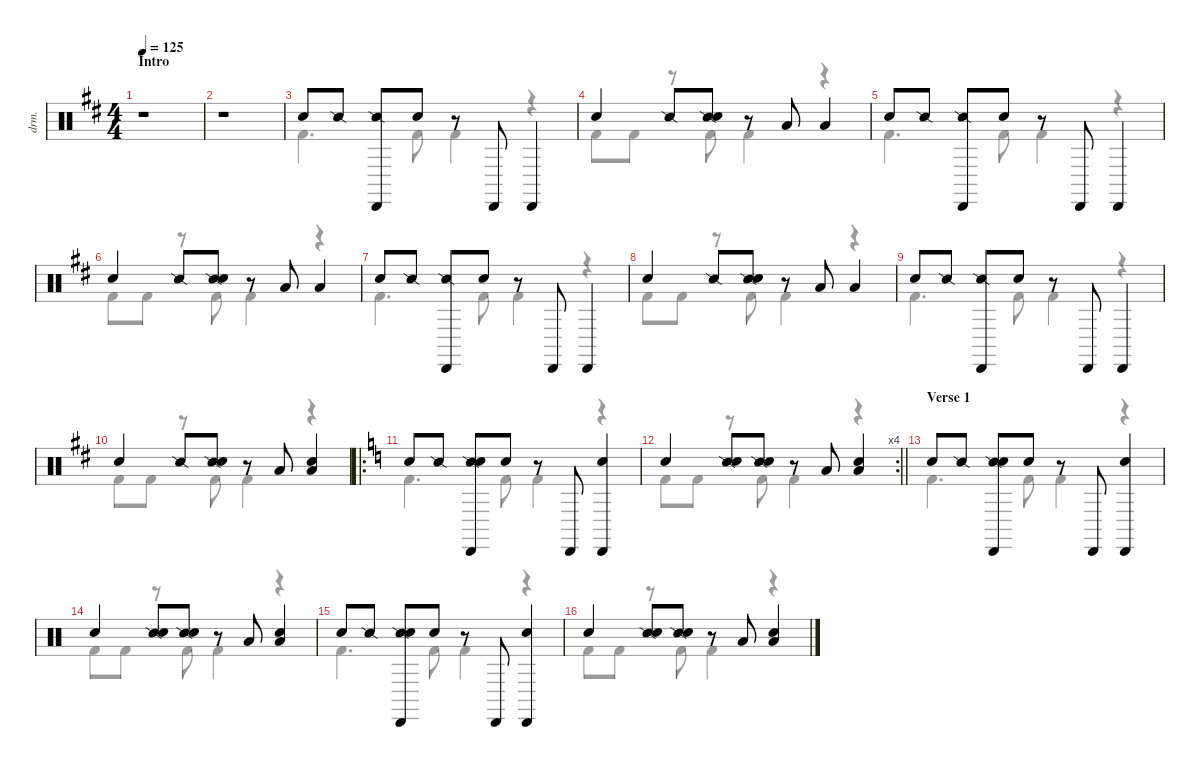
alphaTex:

\defaultSystemsLayout 4
\hideDynamics
\bracketExtendMode nobrackets
\otherSystemsTrackNameOrientation horizontal
\track ("Drums" "drm.") {instrument percussion}
\staff {score}
\articulation defaults
\voice
\ts (4 4)
\beaming (8 2 2 2 2)
\section ("" "Intro")
\tempo 125
\clef neutral
\ks d
r.1{dy p beam Down} |
r.1{beam Down} |
"Hand Clap (hit)"{acc forcenatural}.8{beam Up} "Snare (side stick) 2"{acc forcenatural}.8{dy f beam Up} ("Snare (side stick) 2"{acc forcenatural} "Cabasa (hit)"{acc forcenatural}).8{beam Up} "Hand Clap (hit)"{acc forcenatural}.8{dy p beam Up} r.8{beam Up} "Cabasa (hit)"{acc forcenatural}.8{dy f beam Up} "Cabasa (hit)"{acc forcenatural}.4{beam Up} |
"Hand Clap (hit)"{acc forcenatural}.4{dy p beam Up} "Snare (side stick) 2"{acc forcenatural}.8{dy mf beam Up} ("Snare (side stick) 2"{acc forcenatural} "Hand Clap (hit)"{acc forcenatural}).8{beam Up} r.8{beam Up} "Low Tom (hit)"{acc forcenatural}.8{dy f beam Up} "Low Tom (hit)"{acc forcenatural}.4{beam Up} |
"Hand Clap (hit)"{acc forcenatural}.8{dy p beam Up} "Snare (side stick) 2"{acc forcenatural}.8{dy f beam Up} ("Snare (side stick) 2"{acc forcenatural} "Cabasa (hit)"{acc forcenatural}).8{beam Up} "Hand Clap (hit)"{acc forcenatural}.8{dy p beam Up} r.8{beam Up} "Cabasa (hit)"{acc forcenatural}.8{dy f beam Up} "Cabasa (hit)"{acc forcenatural}.4{beam Up} |
"Hand Clap (hit)"{acc forcenatural}.4{dy p beam Up} "Snare (side stick) 2"{acc forcenatural}.8{dy mf beam Up} ("Snare (side stick) 2"{acc forcenatural} "Hand Clap (hit)"{acc forcenatural}).8{beam Up} r.8{beam Up} "Low Tom (hit)"{acc forcenatural}.8{dy f beam Up} "Low Tom (hit)"{acc forcenatural}.4{beam Up} |
"Hand Clap (hit)"{acc forcenatural}.8{dy p beam Up} "Snare (side stick) 2"{acc forcenatural}.8{dy f beam Up} ("Snare (side stick) 2"{acc forcenatural} "Cabasa (hit)"{acc forcenatural}).8{beam Up} "Hand Clap (hit)"{acc forcenatural}.8{dy p beam Up} r.8{beam Up} "Cabasa (hit)"{acc forcenatural}.8{dy f beam Up} "Cabasa (hit)"{acc forcenatural}.4{beam Up} |
"Hand Clap (hit)"{acc forcenatural}.4{dy p beam Up} "Snare (side stick) 2"{acc forcenatural}.8{dy mf beam Up} ("Snare (side stick) 2"{acc forcenatural} "Hand Clap (hit)"{acc forcenatural}).8{beam Up} r.8{beam Up} "Low Tom (hit)"{acc forcenatural}.8{dy f beam Up} "Low Tom (hit)"{acc forcenatural}.4{beam Up} |
"Hand Clap (hit)"{acc forcenatural}.8{dy p beam Up} "Snare (side stick) 2"{acc forcenatural}.8{dy f beam Up} ("Snare (side stick) 2"{acc forcenatural} "Cabasa (hit)"{acc forcenatural}).8{beam Up} "Hand Clap (hit)"{acc forcenatural}.8{dy p beam Up} r.8{beam Up} "Cabasa (hit)"{acc forcenatural}.8{dy f beam Up} "Cabasa (hit)"{acc forcenatural}.4{beam Up} |
"Hand Clap (hit)"{acc forcenatural}.4{dy p beam Up} "Snare (side stick) 2"{acc forcenatural}.8{dy mf beam Up} ("Snare (side stick) 2"{acc forcenatural} "Hand Clap (hit)"{acc forcenatural}).8{beam Up} r.8{beam Up} "Low Tom (hit)"{acc forcenatural}.8{dy f beam Up} ("Low Tom (hit)"{acc forcenatural} "Snare (hit) 2"{acc forcenatural}).4{beam Up} |
\ro
\ks c "Hand Clap (hit)".8{dy p beam Up} "Snare (side stick) 2".8{dy f beam Up}
("Snare (side stick) 2" "Cabasa (hit)" "Snare (hit) 2").8{beam Up} "Hand Clap (hit)".8{dy p beam Up} r.8{beam Up} "Cabasa (hit)".8{dy f beam Up} ("Cabasa (hit)" "Snare (hit) 2").4{beam Up} |
\rc 4
\barLineRight lightlight "Hand Clap (hit)".4{dy p beam Up}
("Snare (side stick) 2" "Snare (hit) 2").8{dy mf beam Up} ("Snare (side stick) 2" "Hand Clap (hit)").8{beam Up} r.8{beam Up} "Low Tom (hit)".8{dy f beam Up} ("Low Tom (hit)" "Snare (hit) 2").4{beam Up} |
\section ("" "Verse 1")
"Hand Clap (hit)".8{dy p beam Up} "Snare (side stick) 2".8{dy f beam Up} ("Snare (side stick) 2" "Cabasa (hit)" "Snare (hit) 2").8{beam Up} "Hand Clap (hit)".8{dy p beam Up} r.8{beam Up} "Cabasa (hit)".8{dy f beam Up} ("Cabasa (hit)" "Snare (hit) 2").4{beam Up} |
"Hand Clap (hit)".4{dy p beam Up} ("Snare (side stick) 2" "Snare (hit) 2").8{dy mf beam Up} ("Snare (side stick) 2" "Hand Clap (hit)").8{beam Up} r.8{beam Up} "Low Tom (hit)".8{dy f beam Up} ("Low Tom (hit)" "Snare (hit) 2").4{beam Up} |
"Hand Clap (hit)".8{dy p beam Up} "Snare (side stick) 2".8{dy f beam Up} ("Snare (side stick) 2" "Cabasa (hit)" "Snare (hit) 2").8{beam Up} "Hand Clap (hit)".8{dy p beam Up} r.8{beam Up} "Cabasa (hit)".8{dy f beam Up} ("Cabasa (hit)" "Snare (hit) 2").4{beam Up} |
"Hand Clap (hit)".4{dy p beam Up} ("Snare (side stick) 2" "Snare (hit) 2").8{dy mf beam Up} ("Snare (side stick) 2" "Hand Clap (hit)").8{beam Up} r.8{beam Up} "Low Tom (hit)".8{dy f beam Up} ("Low Tom (hit)" "Snare (hit) 2").4{beam Up}
\voice
\clef neutral
\ottava regular
\simile none
\ks d
|
|
"Kick (hit) 2"{acc forcenatural}.4{d beam Down} "Kick (hit) 2"{acc forcenatural}.8{beam Down} "Kick (hit) 2"{acc forcenatural}.4{dy p beam Down} r.4{beam Down} |
"Kick (hit) 2"{acc forcenatural}.8{dy f beam Down} "Kick (hit) 2"{acc forcenatural}.8{dy p beam Down} r.8{beam Down} "Kick (hit) 2"{acc forcenatural}.8{dy f beam Down} "Kick (hit) 2"{acc forcenatural}.4{dy p beam Down} r.4{beam Down} |
"Kick (hit) 2"{acc forcenatural}.4{d dy f beam Down} "Kick (hit) 2"{acc forcenatural}.8{beam Down} "Kick (hit) 2"{acc forcenatural}.4{dy p beam Down} r.4{beam Down} |
"Kick (hit) 2"{acc forcenatural}.8{dy f beam Down} "Kick (hit) 2"{acc forcenatural}.8{dy p beam Down} r.8{beam Down} "Kick (hit) 2"{acc forcenatural}.8{dy f beam Down} "Kick (hit) 2"{acc forcenatural}.4{dy p beam Down} r.4{beam Down} |
"Kick (hit) 2"{acc forcenatural}.4{d dy ff beam Down} "Kick (hit) 2"{acc forcenatural}.8{beam Down} "Kick (hit) 2"{acc forcenatural}.4{dy p beam Down} r.4{beam Down} |
"Kick (hit) 2"{acc forcenatural}.8{dy ff beam Down} "Kick (hit) 2"{acc forcenatural}.8{dy p beam Down} r.8{beam Down} "Kick (hit) 2"{acc forcenatural}.8{dy ff beam Down} "Kick (hit) 2"{acc forcenatural}.4{dy p beam Down} r.4{beam Down} |
"Kick (hit) 2"{acc forcenatural}.4{d dy ff beam Down} "Kick (hit) 2"{acc forcenatural}.8{dy f beam Down} "Kick (hit) 2"{acc forcenatural}.4{dy p beam Down} r.4{beam Down} |
"Kick (hit) 2"{acc forcenatural}.8{dy ff beam Down} "Kick (hit) 2"{acc forcenatural}.8{dy p beam Down} r.8{beam Down} "Kick (hit) 2"{acc forcenatural}.8{dy ff beam Down} "Kick (hit) 2"{acc forcenatural}.4{dy p beam Down} r.4{beam Down} |
\ks c "Kick (hit) 2".4{d dy ff beam Down} "Kick (hit) 2".8{beam Down} "Kick (hit) 2".4{dy p beam Down}
r.4{beam Down} |
\barLineRight lightlight "Kick (hit) 2".8{dy ff beam Down} "Kick (hit) 2".8{dy p beam Down}
r.8{beam Down} "Kick (hit) 2".8{dy ff beam Down} "Kick (hit) 2".4{dy p beam Down} r.4{beam Down} |
"Kick (hit) 2".4{d dy ff beam Down} "Kick (hit) 2".8{beam Down} "Kick (hit) 2".4{dy p beam Down} r.4{beam Down} |
"Kick (hit) 2".8{dy ff beam Down} "Kick (hit) 2".8{dy p beam Down} r.8{beam Down} "Kick (hit) 2".8{dy ff beam Down} "Kick (hit) 2".4{dy p beam Down} r.4{beam Down} |
"Kick (hit) 2".4{d dy ff beam Down} "Kick (hit) 2".8{beam Down} "Kick (hit) 2".4{dy p beam Down} r.4{beam Down} |
"Kick (hit) 2".8{dy ff beam Down} "Kick (hit) 2".8{dy p beam Down} r.8{beam Down} "Kick (hit) 2".8{dy ff beam Down} "Kick (hit) 2".4{dy p beam Down} r.4{beam Down}
